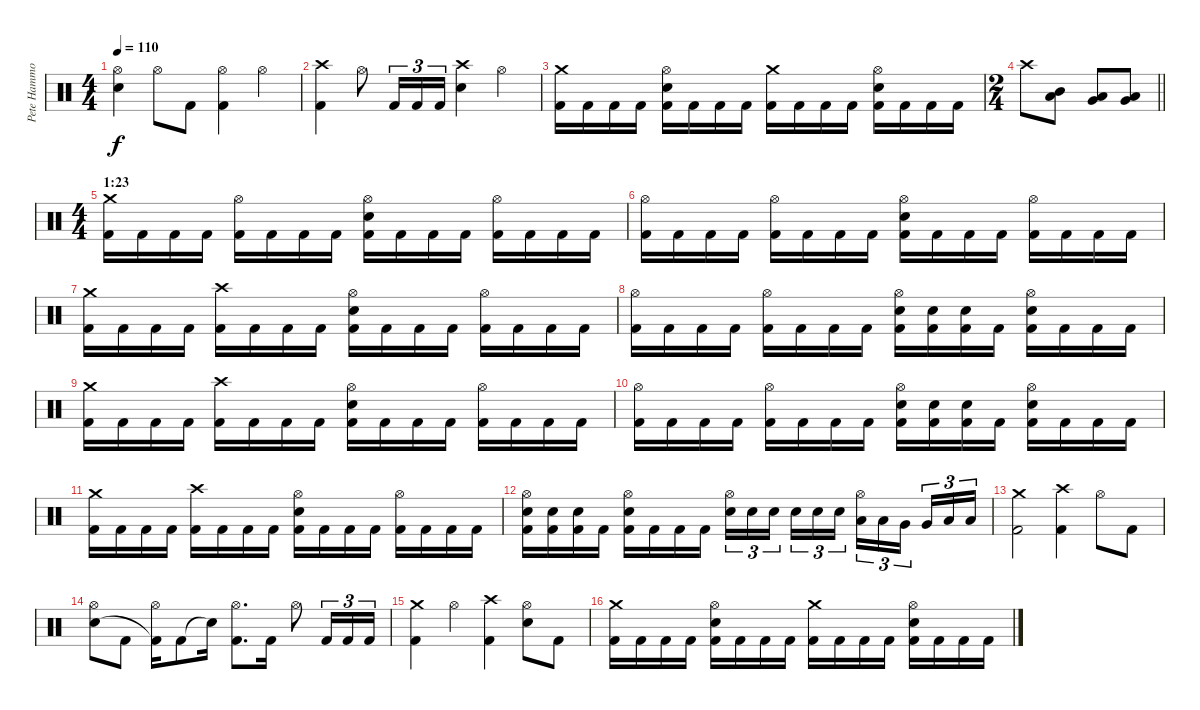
\track ("Pete Hammoura" "Pete Hammo") {instrument percussion}
\staff {score}
\articulation defaults
\ts (4 4)
\tempo 110
\clef neutral
\ks c
("Hi-Hat (open)" "Electric Snare (hit)").4{dy f} "Hi-Hat (open)".8 "Kick (hit) 2".8 ("Hi-Hat (open)" "Kick (hit) 2").4 "Hi-Hat (open)".4 |
("Crash high (hit)" "Kick (hit) 2").4 "Hi-Hat (open)".8 "Kick (hit) 2".16{tu (3 2)} "Kick (hit) 2".16{tu (3 2)} "Kick (hit) 2".16{tu (3 2)} ("Crash high (hit)" "Electric Snare (hit)").4 "Hi-Hat (open)".4 |
("Crash medium (hit)" "Kick (hit) 2").16 "Kick (hit) 2".16 "Kick (hit) 2".16 "Kick (hit) 2".16 ("Hi-Hat (open)" "Electric Snare (hit)" "Kick (hit) 2").16 "Kick (hit) 2".16 "Kick (hit) 2".16 "Kick (hit) 2".16 ("Crash medium (hit)" "Kick (hit) 2").16 "Kick (hit) 2".16 "Kick (hit) 2".16 "Kick (hit) 2".16 ("Hi-Hat (open)" "Electric Snare (hit)" "Kick (hit) 2").16 "Kick (hit) 2".16 "Kick (hit) 2".16 "Kick (hit) 2".16 |
\ts (2 4)
\barLineRight lightlight "Crash high (hit)".8
("Mid Tom (hit)" "Low Tom (hit)").8 ("Low Tom (hit)" "Very Low Tom (hit)").8 ("Very Low Tom (hit)" "Low Floor Tom (hit)").8 |
\ts (4 4)
\section ("" "1:23")
("Crash medium (hit)" "Kick (hit) 2").16 "Kick (hit) 2".16 "Kick (hit) 2".16 "Kick (hit) 2".16 ("Hi-Hat (open)" "Kick (hit) 2").16 "Kick (hit) 2".16 "Kick (hit) 2".16 "Kick (hit) 2".16 ("Hi-Hat (open)" "Electric Snare (hit)" "Kick (hit) 2").16 "Kick (hit) 2".16 "Kick (hit) 2".16 "Kick (hit) 2".16 ("Hi-Hat (open)" "Kick (hit) 2").16 "Kick (hit) 2".16 "Kick (hit) 2".16 "Kick (hit) 2".16 |
("Hi-Hat (open)" "Kick (hit) 2").16 "Kick (hit) 2".16 "Kick (hit) 2".16 "Kick (hit) 2".16 ("Hi-Hat (open)" "Kick (hit) 2").16 "Kick (hit) 2".16 "Kick (hit) 2".16 "Kick (hit) 2".16 ("Hi-Hat (open)" "Electric Snare (hit)" "Kick (hit) 2").16 "Kick (hit) 2".16 "Kick (hit) 2".16 "Kick (hit) 2".16 ("Hi-Hat (open)" "Kick (hit) 2").16 "Kick (hit) 2".16 "Kick (hit) 2".16 "Kick (hit) 2".16 |
("Crash medium (hit)" "Kick (hit) 2").16 "Kick (hit) 2".16 "Kick (hit) 2".16 "Kick (hit) 2".16 ("Crash high (hit)" "Kick (hit) 2").16 "Kick (hit) 2".16 "Kick (hit) 2".16 "Kick (hit) 2".16 ("Hi-Hat (open)" "Electric Snare (hit)" "Kick (hit) 2").16 "Kick (hit) 2".16 "Kick (hit) 2".16 "Kick (hit) 2".16 ("Hi-Hat (open)" "Kick (hit) 2").16 "Kick (hit) 2".16 "Kick (hit) 2".16 "Kick (hit) 2".16 |
("Hi-Hat (open)" "Kick (hit) 2").16 "Kick (hit) 2".16 "Kick (hit) 2".16 "Kick (hit) 2".16 ("Hi-Hat (open)" "Kick (hit) 2").16 "Kick (hit) 2".16 "Kick (hit) 2".16 "Kick (hit) 2".16 ("Hi-Hat (open)" "Electric Snare (hit)" "Kick (hit) 2").16 ("Electric Snare (hit)" "Kick (hit) 2").16 ("Electric Snare (hit)" "Kick (hit) 2").16 "Kick (hit) 2".16 ("Hi-Hat (open)" "Electric Snare (hit)" "Kick (hit) 2").16 "Kick (hit) 2".16 "Kick (hit) 2".16 "Kick (hit) 2".16 |
("Crash medium (hit)" "Kick (hit) 2").16 "Kick (hit) 2".16 "Kick (hit) 2".16 "Kick (hit) 2".16 ("Crash high (hit)" "Kick (hit) 2").16 "Kick (hit) 2".16 "Kick (hit) 2".16 "Kick (hit) 2".16 ("Hi-Hat (open)" "Electric Snare (hit)" "Kick (hit) 2").16 "Kick (hit) 2".16 "Kick (hit) 2".16 "Kick (hit) 2".16 ("Hi-Hat (open)" "Kick (hit) 2").16 "Kick (hit) 2".16 "Kick (hit) 2".16 "Kick (hit) 2".16 |
("Hi-Hat (open)" "Kick (hit) 2").16 "Kick (hit) 2".16 "Kick (hit) 2".16 "Kick (hit) 2".16 ("Hi-Hat (open)" "Kick (hit) 2").16 "Kick (hit) 2".16 "Kick (hit) 2".16 "Kick (hit) 2".16 ("Hi-Hat (open)" "Electric Snare (hit)" "Kick (hit) 2").16 ("Electric Snare (hit)" "Kick (hit) 2").16 ("Electric Snare (hit)" "Kick (hit) 2").16 "Kick (hit) 2".16 ("Hi-Hat (open)" "Electric Snare (hit)" "Kick (hit) 2").16 "Kick (hit) 2".16 "Kick (hit) 2".16 "Kick (hit) 2".16 |
("Crash medium (hit)" "Kick (hit) 2").16 "Kick (hit) 2".16 "Kick (hit) 2".16 "Kick (hit) 2".16 ("Crash high (hit)" "Kick (hit) 2").16 "Kick (hit) 2".16 "Kick (hit) 2".16 "Kick (hit) 2".16 ("Hi-Hat (open)" "Electric Snare (hit)" "Kick (hit) 2").16 "Kick (hit) 2".16 "Kick (hit) 2".16 "Kick (hit) 2".16 ("Hi-Hat (open)" "Kick (hit) 2").16 "Kick (hit) 2".16 "Kick (hit) 2".16 "Kick (hit) 2".16 |
("Hi-Hat (open)" "Electric Snare (hit)" "Kick (hit) 2").16 ("Electric Snare (hit)" "Kick (hit) 2").16 ("Electric Snare (hit)" "Kick (hit) 2").16 "Kick (hit) 2".16 ("Hi-Hat (open)" "Electric Snare (hit)" "Kick (hit) 2").16 "Kick (hit) 2".16 "Kick (hit) 2".16 "Kick (hit) 2".16 ("Hi-Hat (open)" "Electric Snare (hit)").16{tu (3 2)} "Electric Snare (hit)".16{tu (3 2)} "Electric Snare (hit)".16{tu (3 2) beam splitsecondary} "Electric Snare (hit)".16{tu (3 2)} "Electric Snare (hit)".16{tu (3 2)} "Electric Snare (hit)".16{tu (3 2)} ("Hi-Hat (open)" "Low Tom (hit)").16{tu (3 2)} "Low Tom (hit)".16{tu (3 2)} "Very Low Tom (hit)".16{tu (3 2) beam splitsecondary} "Very Low Tom (hit)".16{tu (3 2)} "Low Floor Tom (hit)".16{tu (3 2)} "Low Floor Tom (hit)".16{tu (3 2)} |
("Crash medium (hit)" "Kick (hit) 2").2 ("Crash high (hit)" "Kick (hit) 2").4 "Hi-Hat (open)".8 "Kick (hit) 2".8 |
("Hi-Hat (open)" "Electric Snare (hit)").8 "Kick (hit) 2".8 ("Hi-Hat (open)" "Kick (hit) 2"{t}).16 "Kick (hit) 2".8 "Snare (hit)"{t}.16 ("Hi-Hat (open)" "Kick (hit) 2").8{d} "Kick (hit) 2".16 "Hi-Hat (open)".8 "Kick (hit) 2".16{tu (3 2)} "Kick (hit) 2".16{tu (3 2)} "Kick (hit) 2".16{tu (3 2)} |
("Crash medium (hit)" "Kick (hit) 2").4 "Hi-Hat (open)".4 ("Crash high (hit)" "Kick (hit) 2").4 ("Hi-Hat (open)" "Electric Snare (hit)").8 "Kick (hit) 2".8 |
("Crash medium (hit)" "Kick (hit) 2").16 "Kick (hit) 2".16 "Kick (hit) 2".16 "Kick (hit) 2".16 ("Hi-Hat (open)" "Electric Snare (hit)" "Kick (hit) 2").16 "Kick (hit) 2".16 "Kick (hit) 2".16 "Kick (hit) 2".16 ("Crash medium (hit)" "Kick (hit) 2").16 "Kick (hit) 2".16 "Kick (hit) 2".16 "Kick (hit) 2".16 ("Hi-Hat (open)" "Electric Snare (hit)" "Kick (hit) 2").16 "Kick (hit) 2".16 "Kick (hit) 2".16 "Kick (hit) 2".16
